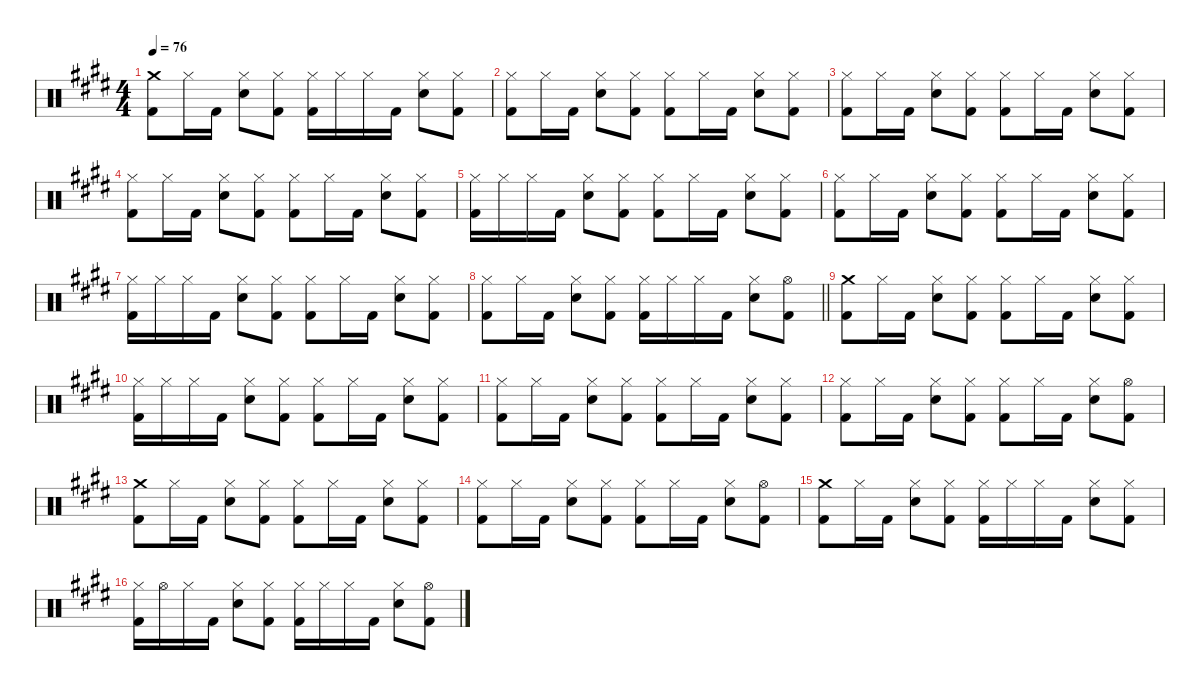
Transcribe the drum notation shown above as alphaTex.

\defaultSystemsLayout 4
\hideDynamics
\bracketExtendMode nobrackets
\singleTrackTrackNamePolicy hidden
\multiTrackTrackNamePolicy hidden
\firstSystemTrackNameMode fullname
\otherSystemsTrackNameOrientation horizontal
\track ("Drums" "drm.") {instrument percussion}
\staff {score}
\articulation defaults
\ts (4 4)
\tempo 76
\clef neutral
\ks e
("Crash medium (hit)"{acc forcenatural} "Kick (hit) 2"{acc forcenatural}).8{dy f beam Down} "Hi-Hat (closed)"{acc forcenatural}.16{beam Down} "Kick (hit) 2"{acc forcenatural}.16{beam Down} ("Hi-Hat (closed)"{acc forcenatural} "Snare (hit) 2"{acc forcenatural}).8{dy mf beam Down} ("Hi-Hat (closed)"{acc forcenatural} "Kick (hit) 2"{acc forcenatural}).8{dy f beam Down} ("Hi-Hat (closed)"{acc forcenatural} "Kick (hit) 2"{acc forcenatural}).16{beam Down} "Hi-Hat (closed)"{acc forcenatural}.16{dy mf beam Down} "Hi-Hat (closed)"{acc forcenatural}.16{dy f beam Down} "Kick (hit) 2"{acc forcenatural}.16{beam Down} ("Hi-Hat (closed)"{acc forcenatural} "Snare (hit) 2"{acc forcenatural}).8{dy mf beam Down} ("Hi-Hat (closed)"{acc forcenatural} "Kick (hit) 2"{acc forcenatural}).8{dy f beam Down} |
("Hi-Hat (closed)"{acc forcenatural} "Kick (hit) 2"{acc forcenatural}).8{beam Down} "Hi-Hat (closed)"{acc forcenatural}.16{beam Down} "Kick (hit) 2"{acc forcenatural}.16{beam Down} ("Hi-Hat (closed)"{acc forcenatural} "Snare (hit) 2"{acc forcenatural}).8{dy mf beam Down} ("Hi-Hat (closed)"{acc forcenatural} "Kick (hit) 2"{acc forcenatural}).8{dy f beam Down} ("Hi-Hat (closed)"{acc forcenatural} "Kick (hit) 2"{acc forcenatural}).8{beam Down} "Hi-Hat (closed)"{acc forcenatural}.16{beam Down} "Kick (hit) 2"{acc forcenatural}.16{beam Down} ("Hi-Hat (closed)"{acc forcenatural} "Snare (hit) 2"{acc forcenatural}).8{dy mf beam Down} ("Hi-Hat (closed)"{acc forcenatural} "Kick (hit) 2"{acc forcenatural}).8{dy f beam Down} |
("Hi-Hat (closed)"{acc forcenatural} "Kick (hit) 2"{acc forcenatural}).8{beam Down} "Hi-Hat (closed)"{acc forcenatural}.16{beam Down} "Kick (hit) 2"{acc forcenatural}.16{beam Down} ("Hi-Hat (closed)"{acc forcenatural} "Snare (hit) 2"{acc forcenatural}).8{dy mf beam Down} ("Hi-Hat (closed)"{acc forcenatural} "Kick (hit) 2"{acc forcenatural}).8{dy f beam Down} ("Hi-Hat (closed)"{acc forcenatural} "Kick (hit) 2"{acc forcenatural}).8{beam Down} "Hi-Hat (closed)"{acc forcenatural}.16{beam Down} "Kick (hit) 2"{acc forcenatural}.16{beam Down} ("Hi-Hat (closed)"{acc forcenatural} "Snare (hit) 2"{acc forcenatural}).8{dy mf beam Down} ("Hi-Hat (closed)"{acc forcenatural} "Kick (hit) 2"{acc forcenatural}).8{dy f beam Down} |
("Hi-Hat (closed)"{acc forcenatural} "Kick (hit) 2"{acc forcenatural}).8{beam Down} "Hi-Hat (closed)"{acc forcenatural}.16{beam Down} "Kick (hit) 2"{acc forcenatural}.16{beam Down} ("Hi-Hat (closed)"{acc forcenatural} "Snare (hit) 2"{acc forcenatural}).8{dy mf beam Down} ("Hi-Hat (closed)"{acc forcenatural} "Kick (hit) 2"{acc forcenatural}).8{dy f beam Down} ("Hi-Hat (closed)"{acc forcenatural} "Kick (hit) 2"{acc forcenatural}).8{beam Down} "Hi-Hat (closed)"{acc forcenatural}.16{beam Down} "Kick (hit) 2"{acc forcenatural}.16{beam Down} ("Hi-Hat (closed)"{acc forcenatural} "Snare (hit) 2"{acc forcenatural}).8{dy mf beam Down} ("Hi-Hat (closed)"{acc forcenatural} "Kick (hit) 2"{acc forcenatural}).8{dy f beam Down} |
("Hi-Hat (closed)"{acc forcenatural} "Kick (hit) 2"{acc forcenatural}).16{beam Down} "Hi-Hat (closed)"{acc forcenatural}.16{dy mf beam Down} "Hi-Hat (closed)"{acc forcenatural}.16{dy f beam Down} "Kick (hit) 2"{acc forcenatural}.16{beam Down} ("Hi-Hat (closed)"{acc forcenatural} "Snare (hit) 2"{acc forcenatural}).8{dy mf beam Down} ("Hi-Hat (closed)"{acc forcenatural} "Kick (hit) 2"{acc forcenatural}).8{dy f beam Down} ("Hi-Hat (closed)"{acc forcenatural} "Kick (hit) 2"{acc forcenatural}).8{beam Down} "Hi-Hat (closed)"{acc forcenatural}.16{beam Down} "Kick (hit) 2"{acc forcenatural}.16{beam Down} ("Hi-Hat (closed)"{acc forcenatural} "Snare (hit) 2"{acc forcenatural}).8{dy mf beam Down} ("Hi-Hat (closed)"{acc forcenatural} "Kick (hit) 2"{acc forcenatural}).8{dy f beam Down} |
("Hi-Hat (closed)"{acc forcenatural} "Kick (hit) 2"{acc forcenatural}).8{beam Down} "Hi-Hat (closed)"{acc forcenatural}.16{beam Down} "Kick (hit) 2"{acc forcenatural}.16{beam Down} ("Hi-Hat (closed)"{acc forcenatural} "Snare (hit) 2"{acc forcenatural}).8{dy mf beam Down} ("Hi-Hat (closed)"{acc forcenatural} "Kick (hit) 2"{acc forcenatural}).8{dy f beam Down} ("Hi-Hat (closed)"{acc forcenatural} "Kick (hit) 2"{acc forcenatural}).8{beam Down} "Hi-Hat (closed)"{acc forcenatural}.16{beam Down} "Kick (hit) 2"{acc forcenatural}.16{beam Down} ("Hi-Hat (closed)"{acc forcenatural} "Snare (hit) 2"{acc forcenatural}).8{dy mf beam Down} ("Hi-Hat (closed)"{acc forcenatural} "Kick (hit) 2"{acc forcenatural}).8{dy f beam Down} |
("Hi-Hat (closed)"{acc forcenatural} "Kick (hit) 2"{acc forcenatural}).16{beam Down} "Hi-Hat (closed)"{acc forcenatural}.16{dy mf beam Down} "Hi-Hat (closed)"{acc forcenatural}.16{dy f beam Down} "Kick (hit) 2"{acc forcenatural}.16{beam Down} ("Hi-Hat (closed)"{acc forcenatural} "Snare (hit) 2"{acc forcenatural}).8{dy mf beam Down} ("Hi-Hat (closed)"{acc forcenatural} "Kick (hit) 2"{acc forcenatural}).8{dy f beam Down} ("Hi-Hat (closed)"{acc forcenatural} "Kick (hit) 2"{acc forcenatural}).8{beam Down} "Hi-Hat (closed)"{acc forcenatural}.16{beam Down} "Kick (hit) 2"{acc forcenatural}.16{beam Down} ("Hi-Hat (closed)"{acc forcenatural} "Snare (hit) 2"{acc forcenatural}).8{dy mf beam Down} ("Hi-Hat (closed)"{acc forcenatural} "Kick (hit) 2"{acc forcenatural}).8{dy f beam Down} |
\barLineRight lightlight
("Hi-Hat (closed)"{acc forcenatural} "Kick (hit) 2"{acc forcenatural}).8{beam Down} "Hi-Hat (closed)"{acc forcenatural}.16{beam Down} "Kick (hit) 2"{acc forcenatural}.16{beam Down} ("Hi-Hat (closed)"{acc forcenatural} "Snare (hit) 2"{acc forcenatural}).8{dy mf beam Down} ("Hi-Hat (closed)"{acc forcenatural} "Kick (hit) 2"{acc forcenatural}).8{dy f beam Down} ("Hi-Hat (closed)"{acc forcenatural} "Kick (hit) 2"{acc forcenatural}).16{beam Down} "Hi-Hat (closed)"{acc forcenatural}.16{dy mf beam Down} "Hi-Hat (closed)"{acc forcenatural}.16{dy f beam Down} "Kick (hit) 2"{acc forcenatural}.16{beam Down} ("Hi-Hat (closed)"{acc forcenatural} "Snare (hit) 2"{acc forcenatural}).8{dy mf beam Down} ("Hi-Hat (open)"{acc forcenatural} "Kick (hit) 2"{acc forcenatural}).8{dy f beam Down} |
("Crash medium (hit)"{acc forcenatural} "Kick (hit) 2"{acc forcenatural}).8{beam Down} "Hi-Hat (closed)"{acc forcenatural}.16{beam Down} "Kick (hit) 2"{acc forcenatural}.16{beam Down} ("Hi-Hat (closed)"{acc forcenatural} "Snare (hit) 2"{acc forcenatural}).8{dy mf beam Down} ("Hi-Hat (closed)"{acc forcenatural} "Kick (hit) 2"{acc forcenatural}).8{dy f beam Down} ("Hi-Hat (closed)"{acc forcenatural} "Kick (hit) 2"{acc forcenatural}).8{beam Down} "Hi-Hat (closed)"{acc forcenatural}.16{beam Down} "Kick (hit) 2"{acc forcenatural}.16{beam Down} ("Hi-Hat (closed)"{acc forcenatural} "Snare (hit) 2"{acc forcenatural}).8{dy mf beam Down} ("Hi-Hat (closed)"{acc forcenatural} "Kick (hit) 2"{acc forcenatural}).8{dy f beam Down} |
("Hi-Hat (closed)"{acc forcenatural} "Kick (hit) 2"{acc forcenatural}).16{beam Down} "Hi-Hat (closed)"{acc forcenatural}.16{dy mf beam Down} "Hi-Hat (closed)"{acc forcenatural}.16{dy f beam Down} "Kick (hit) 2"{acc forcenatural}.16{beam Down} ("Hi-Hat (closed)"{acc forcenatural} "Snare (hit) 2"{acc forcenatural}).8{dy mf beam Down} ("Hi-Hat (closed)"{acc forcenatural} "Kick (hit) 2"{acc forcenatural}).8{dy f beam Down} ("Hi-Hat (closed)"{acc forcenatural} "Kick (hit) 2"{acc forcenatural}).8{beam Down} "Hi-Hat (closed)"{acc forcenatural}.16{beam Down} "Kick (hit) 2"{acc forcenatural}.16{beam Down} ("Hi-Hat (closed)"{acc forcenatural} "Snare (hit) 2"{acc forcenatural}).8{dy mf beam Down} ("Hi-Hat (closed)"{acc forcenatural} "Kick (hit) 2"{acc forcenatural}).8{dy f beam Down} |
("Hi-Hat (closed)"{acc forcenatural} "Kick (hit) 2"{acc forcenatural}).8{beam Down} "Hi-Hat (closed)"{acc forcenatural}.16{beam Down} "Kick (hit) 2"{acc forcenatural}.16{beam Down} ("Hi-Hat (closed)"{acc forcenatural} "Snare (hit) 2"{acc forcenatural}).8{dy mf beam Down} ("Hi-Hat (closed)"{acc forcenatural} "Kick (hit) 2"{acc forcenatural}).8{dy f beam Down} ("Hi-Hat (closed)"{acc forcenatural} "Kick (hit) 2"{acc forcenatural}).8{beam Down} "Hi-Hat (closed)"{acc forcenatural}.16{beam Down} "Kick (hit) 2"{acc forcenatural}.16{beam Down} ("Hi-Hat (closed)"{acc forcenatural} "Snare (hit) 2"{acc forcenatural}).8{dy mf beam Down} ("Hi-Hat (closed)"{acc forcenatural} "Kick (hit) 2"{acc forcenatural}).8{dy f beam Down} |
("Hi-Hat (closed)"{acc forcenatural} "Kick (hit) 2"{acc forcenatural}).8{beam Down} "Hi-Hat (closed)"{acc forcenatural}.16{beam Down} "Kick (hit) 2"{acc forcenatural}.16{beam Down} ("Hi-Hat (closed)"{acc forcenatural} "Snare (hit) 2"{acc forcenatural}).8{dy mf beam Down} ("Hi-Hat (closed)"{acc forcenatural} "Kick (hit) 2"{acc forcenatural}).8{dy f beam Down} ("Hi-Hat (closed)"{acc forcenatural} "Kick (hit) 2"{acc forcenatural}).8{beam Down} "Hi-Hat (closed)"{acc forcenatural}.16{beam Down} "Kick (hit) 2"{acc forcenatural}.16{beam Down} ("Hi-Hat (closed)"{acc forcenatural} "Snare (hit) 2"{acc forcenatural}).8{dy mf beam Down} ("Hi-Hat (open)"{acc forcenatural} "Kick (hit) 2"{acc forcenatural}).8{dy f beam Down} |
("Crash medium (hit)"{acc forcenatural} "Kick (hit) 2"{acc forcenatural}).8{beam Down} "Hi-Hat (closed)"{acc forcenatural}.16{beam Down} "Kick (hit) 2"{acc forcenatural}.16{beam Down} ("Hi-Hat (closed)"{acc forcenatural} "Snare (hit) 2"{acc forcenatural}).8{dy mf beam Down} ("Hi-Hat (closed)"{acc forcenatural} "Kick (hit) 2"{acc forcenatural}).8{dy f beam Down} ("Hi-Hat (closed)"{acc forcenatural} "Kick (hit) 2"{acc forcenatural}).8{beam Down} "Hi-Hat (closed)"{acc forcenatural}.16{beam Down} "Kick (hit) 2"{acc forcenatural}.16{beam Down} ("Hi-Hat (closed)"{acc forcenatural} "Snare (hit) 2"{acc forcenatural}).8{dy mf beam Down} ("Hi-Hat (closed)"{acc forcenatural} "Kick (hit) 2"{acc forcenatural}).8{dy f beam Down} |
("Hi-Hat (closed)"{acc forcenatural} "Kick (hit) 2"{acc forcenatural}).8{beam Down} "Hi-Hat (closed)"{acc forcenatural}.16{beam Down} "Kick (hit) 2"{acc forcenatural}.16{beam Down} ("Hi-Hat (closed)"{acc forcenatural} "Snare (hit) 2"{acc forcenatural}).8{dy mf beam Down} ("Hi-Hat (closed)"{acc forcenatural} "Kick (hit) 2"{acc forcenatural}).8{dy f beam Down} ("Hi-Hat (closed)"{acc forcenatural} "Kick (hit) 2"{acc forcenatural}).8{beam Down} "Hi-Hat (closed)"{acc forcenatural}.16{beam Down} "Kick (hit) 2"{acc forcenatural}.16{beam Down} ("Hi-Hat (closed)"{acc forcenatural} "Snare (hit) 2"{acc forcenatural}).8{dy mf beam Down} ("Hi-Hat (open)"{acc forcenatural} "Kick (hit) 2"{acc forcenatural}).8{dy f beam Down} |
("Crash medium (hit)"{acc forcenatural} "Kick (hit) 2"{acc forcenatural}).8{beam Down} "Hi-Hat (closed)"{acc forcenatural}.16{beam Down} "Kick (hit) 2"{acc forcenatural}.16{beam Down} ("Hi-Hat (closed)"{acc forcenatural} "Snare (hit) 2"{acc forcenatural}).8{dy mf beam Down} ("Hi-Hat (closed)"{acc forcenatural} "Kick (hit) 2"{acc forcenatural}).8{dy f beam Down} ("Hi-Hat (closed)"{acc forcenatural} "Kick (hit) 2"{acc forcenatural}).16{beam Down} "Hi-Hat (closed)"{acc forcenatural}.16{dy mf beam Down} "Hi-Hat (closed)"{acc forcenatural}.16{dy f beam Down} "Kick (hit) 2"{acc forcenatural}.16{beam Down} ("Hi-Hat (closed)"{acc forcenatural} "Snare (hit) 2"{acc forcenatural}).8{dy mf beam Down} ("Hi-Hat (closed)"{acc forcenatural} "Kick (hit) 2"{acc forcenatural}).8{dy f beam Down} |
("Hi-Hat (closed)"{acc forcenatural} "Kick (hit) 2"{acc forcenatural}).16{beam Down} "Hi-Hat (open)"{acc forcenatural}.16{beam Down} "Hi-Hat (closed)"{acc forcenatural}.16{beam Down} "Kick (hit) 2"{acc forcenatural}.16{beam Down} ("Hi-Hat (closed)"{acc forcenatural} "Snare (hit) 2"{acc forcenatural}).8{dy mf beam Down} ("Hi-Hat (closed)"{acc forcenatural} "Kick (hit) 2"{acc forcenatural}).8{dy f beam Down} ("Hi-Hat (closed)"{acc forcenatural} "Kick (hit) 2"{acc forcenatural}).16{beam Down} "Hi-Hat (closed)"{acc forcenatural}.16{dy mf beam Down} "Hi-Hat (closed)"{acc forcenatural}.16{dy f beam Down} "Kick (hit) 2"{acc forcenatural}.16{beam Down} ("Hi-Hat (closed)"{acc forcenatural} "Snare (hit) 2"{acc forcenatural}).8{dy mf beam Down} ("Hi-Hat (open)"{acc forcenatural} "Kick (hit) 2"{acc forcenatural}).8{dy f beam Down}
